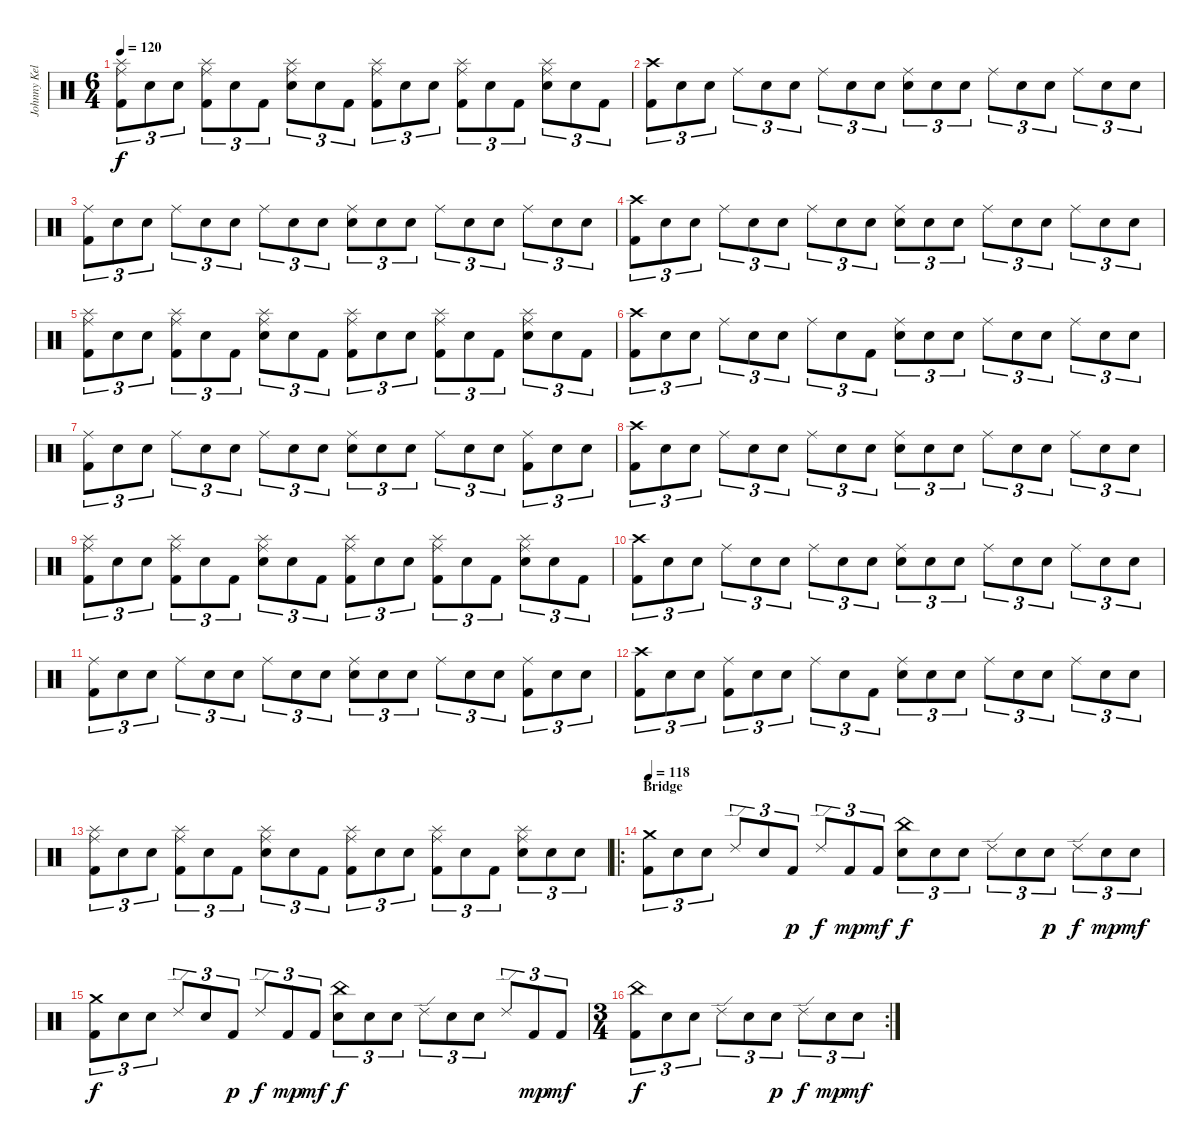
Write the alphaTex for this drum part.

\track ("Johnny Kelly - Drums" "Johnny Kel") {instrument percussion}
\staff {score}
\articulation defaults
\ts (6 4)
\tempo 120
\clef neutral
\ks c
("Ride (middle)" "Splash (hit)" "Kick (hit) 2").8{tu (3 2) dy f} "Snare (hit)".8{tu (3 2)} "Electric Snare (hit)".8{tu (3 2)} ("Ride (middle)" "Splash (hit)" "Kick (hit) 2").8{tu (3 2)} "Snare (hit)".8{tu (3 2)} "Kick (hit) 2".8{tu (3 2)} ("Ride (middle)" "Splash (hit)" "Electric Snare (hit)").8{tu (3 2)} "Snare (hit)".8{tu (3 2)} "Kick (hit) 2".8{tu (3 2)} ("Ride (middle)" "Splash (hit)" "Kick (hit) 2").8{tu (3 2)} "Snare (hit)".8{tu (3 2)} "Electric Snare (hit)".8{tu (3 2)} ("Ride (middle)" "Splash (hit)" "Kick (hit) 2").8{tu (3 2)} "Snare (hit)".8{tu (3 2)} "Kick (hit) 2".8{tu (3 2)} ("Ride (middle)" "Splash (hit)" "Electric Snare (hit)").8{tu (3 2)} "Snare (hit)".8{tu (3 2)} "Kick (hit) 2".8{tu (3 2)} |
("Crash high (hit)" "Kick (hit) 2").8{tu (3 2)} "Snare (hit)".8{tu (3 2)} "Snare (hit)".8{tu (3 2)} "Ride (middle)".8{tu (3 2)} "Snare (hit)".8{tu (3 2)} "Snare (hit)".8{tu (3 2)} "Ride (middle)".8{tu (3 2)} "Snare (hit)".8{tu (3 2)} "Snare (hit)".8{tu (3 2)} ("Ride (middle)" "Electric Snare (hit)").8{tu (3 2)} "Snare (hit)".8{tu (3 2)} "Snare (hit)".8{tu (3 2)} "Ride (middle)".8{tu (3 2)} "Snare (hit)".8{tu (3 2)} "Snare (hit)".8{tu (3 2)} "Ride (middle)".8{tu (3 2)} "Snare (hit)".8{tu (3 2)} "Snare (hit)".8{tu (3 2)} |
("Ride (middle)" "Kick (hit) 2").8{tu (3 2)} "Snare (hit)".8{tu (3 2)} "Snare (hit)".8{tu (3 2)} "Ride (middle)".8{tu (3 2)} "Snare (hit)".8{tu (3 2)} "Snare (hit)".8{tu (3 2)} "Ride (middle)".8{tu (3 2)} "Snare (hit)".8{tu (3 2)} "Snare (hit)".8{tu (3 2)} ("Ride (middle)" "Electric Snare (hit)").8{tu (3 2)} "Snare (hit)".8{tu (3 2)} "Snare (hit)".8{tu (3 2)} "Ride (middle)".8{tu (3 2)} "Snare (hit)".8{tu (3 2)} "Snare (hit)".8{tu (3 2)} "Ride (middle)".8{tu (3 2)} "Snare (hit)".8{tu (3 2)} "Snare (hit)".8{tu (3 2)} |
("Crash high (hit)" "Kick (hit) 2").8{tu (3 2)} "Snare (hit)".8{tu (3 2)} "Snare (hit)".8{tu (3 2)} "Ride (middle)".8{tu (3 2)} "Snare (hit)".8{tu (3 2)} "Snare (hit)".8{tu (3 2)} "Ride (middle)".8{tu (3 2)} "Snare (hit)".8{tu (3 2)} "Snare (hit)".8{tu (3 2)} ("Ride (middle)" "Electric Snare (hit)").8{tu (3 2)} "Snare (hit)".8{tu (3 2)} "Snare (hit)".8{tu (3 2)} "Ride (middle)".8{tu (3 2)} "Snare (hit)".8{tu (3 2)} "Snare (hit)".8{tu (3 2)} "Ride (middle)".8{tu (3 2)} "Snare (hit)".8{tu (3 2)} "Snare (hit)".8{tu (3 2)} |
("Ride (middle)" "Splash (hit)" "Kick (hit) 2").8{tu (3 2)} "Snare (hit)".8{tu (3 2)} "Electric Snare (hit)".8{tu (3 2)} ("Ride (middle)" "Splash (hit)" "Kick (hit) 2").8{tu (3 2)} "Snare (hit)".8{tu (3 2)} "Kick (hit) 2".8{tu (3 2)} ("Ride (middle)" "Splash (hit)" "Electric Snare (hit)").8{tu (3 2)} "Snare (hit)".8{tu (3 2)} "Kick (hit) 2".8{tu (3 2)} ("Ride (middle)" "Splash (hit)" "Kick (hit) 2").8{tu (3 2)} "Snare (hit)".8{tu (3 2)} "Electric Snare (hit)".8{tu (3 2)} ("Ride (middle)" "Splash (hit)" "Kick (hit) 2").8{tu (3 2)} "Snare (hit)".8{tu (3 2)} "Kick (hit) 2".8{tu (3 2)} ("Ride (middle)" "Splash (hit)" "Electric Snare (hit)").8{tu (3 2)} "Snare (hit)".8{tu (3 2)} "Kick (hit) 2".8{tu (3 2)} |
("Crash high (hit)" "Kick (hit) 2").8{tu (3 2)} "Snare (hit)".8{tu (3 2)} "Snare (hit)".8{tu (3 2)} "Ride (middle)".8{tu (3 2)} "Snare (hit)".8{tu (3 2)} "Snare (hit)".8{tu (3 2)} "Ride (middle)".8{tu (3 2)} "Snare (hit)".8{tu (3 2)} "Kick (hit) 2".8{tu (3 2)} ("Ride (middle)" "Electric Snare (hit)").8{tu (3 2)} "Snare (hit)".8{tu (3 2)} "Snare (hit)".8{tu (3 2)} "Ride (middle)".8{tu (3 2)} "Snare (hit)".8{tu (3 2)} "Snare (hit)".8{tu (3 2)} "Ride (middle)".8{tu (3 2)} "Snare (hit)".8{tu (3 2)} "Snare (hit)".8{tu (3 2)} |
("Ride (middle)" "Kick (hit) 2").8{tu (3 2)} "Snare (hit)".8{tu (3 2)} "Snare (hit)".8{tu (3 2)} "Ride (middle)".8{tu (3 2)} "Snare (hit)".8{tu (3 2)} "Snare (hit)".8{tu (3 2)} "Ride (middle)".8{tu (3 2)} "Snare (hit)".8{tu (3 2)} "Snare (hit)".8{tu (3 2)} ("Ride (middle)" "Electric Snare (hit)").8{tu (3 2)} "Snare (hit)".8{tu (3 2)} "Snare (hit)".8{tu (3 2)} "Ride (middle)".8{tu (3 2)} "Snare (hit)".8{tu (3 2)} "Electric Snare (hit)".8{tu (3 2)} ("Ride (middle)" "Kick (hit) 2").8{tu (3 2)} "Snare (hit)".8{tu (3 2)} "Electric Snare (hit)".8{tu (3 2)} |
("Crash high (hit)" "Kick (hit) 2").8{tu (3 2)} "Snare (hit)".8{tu (3 2)} "Snare (hit)".8{tu (3 2)} "Ride (middle)".8{tu (3 2)} "Snare (hit)".8{tu (3 2)} "Snare (hit)".8{tu (3 2)} "Ride (middle)".8{tu (3 2)} "Snare (hit)".8{tu (3 2)} "Snare (hit)".8{tu (3 2)} ("Ride (middle)" "Electric Snare (hit)").8{tu (3 2)} "Snare (hit)".8{tu (3 2)} "Snare (hit)".8{tu (3 2)} "Ride (middle)".8{tu (3 2)} "Snare (hit)".8{tu (3 2)} "Snare (hit)".8{tu (3 2)} "Ride (middle)".8{tu (3 2)} "Snare (hit)".8{tu (3 2)} "Snare (hit)".8{tu (3 2)} |
("Ride (middle)" "Splash (hit)" "Kick (hit) 2").8{tu (3 2)} "Snare (hit)".8{tu (3 2)} "Electric Snare (hit)".8{tu (3 2)} ("Ride (middle)" "Splash (hit)" "Kick (hit) 2").8{tu (3 2)} "Snare (hit)".8{tu (3 2)} "Kick (hit) 2".8{tu (3 2)} ("Ride (middle)" "Splash (hit)" "Electric Snare (hit)").8{tu (3 2)} "Snare (hit)".8{tu (3 2)} "Kick (hit) 2".8{tu (3 2)} ("Ride (middle)" "Splash (hit)" "Kick (hit) 2").8{tu (3 2)} "Snare (hit)".8{tu (3 2)} "Electric Snare (hit)".8{tu (3 2)} ("Ride (middle)" "Splash (hit)" "Kick (hit) 2").8{tu (3 2)} "Snare (hit)".8{tu (3 2)} "Kick (hit) 2".8{tu (3 2)} ("Ride (middle)" "Splash (hit)" "Electric Snare (hit)").8{tu (3 2)} "Snare (hit)".8{tu (3 2)} "Kick (hit) 2".8{tu (3 2)} |
("Crash high (hit)" "Kick (hit) 2").8{tu (3 2)} "Snare (hit)".8{tu (3 2)} "Snare (hit)".8{tu (3 2)} "Ride (middle)".8{tu (3 2)} "Snare (hit)".8{tu (3 2)} "Snare (hit)".8{tu (3 2)} "Ride (middle)".8{tu (3 2)} "Snare (hit)".8{tu (3 2)} "Snare (hit)".8{tu (3 2)} ("Ride (middle)" "Electric Snare (hit)").8{tu (3 2)} "Snare (hit)".8{tu (3 2)} "Snare (hit)".8{tu (3 2)} "Ride (middle)".8{tu (3 2)} "Snare (hit)".8{tu (3 2)} "Snare (hit)".8{tu (3 2)} "Ride (middle)".8{tu (3 2)} "Snare (hit)".8{tu (3 2)} "Snare (hit)".8{tu (3 2)} |
("Ride (middle)" "Kick (hit) 2").8{tu (3 2)} "Snare (hit)".8{tu (3 2)} "Snare (hit)".8{tu (3 2)} "Ride (middle)".8{tu (3 2)} "Snare (hit)".8{tu (3 2)} "Snare (hit)".8{tu (3 2)} "Ride (middle)".8{tu (3 2)} "Snare (hit)".8{tu (3 2)} "Snare (hit)".8{tu (3 2)} ("Ride (middle)" "Electric Snare (hit)").8{tu (3 2)} "Snare (hit)".8{tu (3 2)} "Snare (hit)".8{tu (3 2)} "Ride (middle)".8{tu (3 2)} "Snare (hit)".8{tu (3 2)} "Electric Snare (hit)".8{tu (3 2)} ("Ride (middle)" "Kick (hit) 2").8{tu (3 2)} "Snare (hit)".8{tu (3 2)} "Electric Snare (hit)".8{tu (3 2)} |
("Crash high (hit)" "Kick (hit) 2").8{tu (3 2)} "Snare (hit)".8{tu (3 2)} "Snare (hit)".8{tu (3 2)} ("Ride (middle)" "Kick (hit) 2").8{tu (3 2)} "Snare (hit)".8{tu (3 2)} "Snare (hit)".8{tu (3 2)} "Ride (middle)".8{tu (3 2)} "Snare (hit)".8{tu (3 2)} "Kick (hit) 2".8{tu (3 2)} ("Ride (middle)" "Electric Snare (hit)").8{tu (3 2)} "Snare (hit)".8{tu (3 2)} "Snare (hit)".8{tu (3 2)} "Ride (middle)".8{tu (3 2)} "Snare (hit)".8{tu (3 2)} "Snare (hit)".8{tu (3 2)} "Ride (middle)".8{tu (3 2)} "Snare (hit)".8{tu (3 2)} "Snare (hit)".8{tu (3 2)} |
("Ride (middle)" "Splash (hit)" "Kick (hit) 2").8{tu (3 2)} "Snare (hit)".8{tu (3 2)} "Electric Snare (hit)".8{tu (3 2)} ("Ride (middle)" "Splash (hit)" "Kick (hit) 2").8{tu (3 2)} "Snare (hit)".8{tu (3 2)} "Kick (hit) 2".8{tu (3 2)} ("Ride (middle)" "Splash (hit)" "Electric Snare (hit)").8{tu (3 2)} "Snare (hit)".8{tu (3 2)} "Kick (hit) 2".8{tu (3 2)} ("Ride (middle)" "Splash (hit)" "Kick (hit) 2").8{tu (3 2)} "Snare (hit)".8{tu (3 2)} "Electric Snare (hit)".8{tu (3 2)} ("Ride (middle)" "Splash (hit)" "Kick (hit) 2").8{tu (3 2)} "Snare (hit)".8{tu (3 2)} "Kick (hit) 2".8{tu (3 2)} ("Ride (middle)" "Splash (hit)" "Electric Snare (hit)").8{tu (3 2)} "Snare (hit)".8{tu (3 2)} "Electric Snare (hit)".8{tu (3 2)} |
\ro
\section ("" "Bridge")
\tempo 118
("Crash medium (hit)" "Kick (hit) 2").8{tu (3 2) volume 16 balance 8} "Snare (hit)".8{tu (3 2)} "Snare (hit)".8{tu (3 2)} "Ride (edge) 2".8{tu (3 2)} "Snare (hit)".8{tu (3 2)} "Kick (hit) 2".8{tu (3 2) dy p} "Ride (edge) 2".8{tu (3 2) dy f} "Kick (hit) 2".8{tu (3 2) dy mp} "Kick (hit) 2".8{tu (3 2) dy mf} ("China (hit)" "Electric Snare (hit)").8{tu (3 2) dy f} "Snare (hit)".8{tu (3 2)} "Snare (hit)".8{tu (3 2)} "Ride (edge) 2".8{tu (3 2)} "Snare (hit)".8{tu (3 2)} "Electric Snare (hit)".8{tu (3 2) dy p} "Ride (edge) 2".8{tu (3 2) dy f} "Electric Snare (hit)".8{tu (3 2) dy mp} "Electric Snare (hit)".8{tu (3 2) dy mf} |
("Crash medium (hit)" "Kick (hit) 2").8{tu (3 2) dy f} "Snare (hit)".8{tu (3 2)} "Snare (hit)".8{tu (3 2)} "Ride (edge) 2".8{tu (3 2)} "Snare (hit)".8{tu (3 2)} "Kick (hit) 2".8{tu (3 2) dy p} "Ride (edge) 2".8{tu (3 2) dy f} "Kick (hit) 2".8{tu (3 2) dy mp} "Kick (hit) 2".8{tu (3 2) dy mf} ("China (hit)" "Electric Snare (hit)").8{tu (3 2) dy f} "Snare (hit)".8{tu (3 2)} "Snare (hit)".8{tu (3 2)} "Ride (edge) 2".8{tu (3 2)} "Snare (hit)".8{tu (3 2)} "Snare (hit)".8{tu (3 2)} "Ride (edge) 2".8{tu (3 2)} "Kick (hit) 2".8{tu (3 2) dy mp} "Kick (hit) 2".8{tu (3 2) dy mf} |
\rc 2
\ts (3 4)
("China (hit)" "Kick (hit) 2").8{tu (3 2) dy f} "Snare (hit)".8{tu (3 2)} "Snare (hit)".8{tu (3 2)} "Ride (edge) 2".8{tu (3 2)} "Snare (hit)".8{tu (3 2)} "Electric Snare (hit)".8{tu (3 2) dy p} "Ride (edge) 2".8{tu (3 2) dy f} "Electric Snare (hit)".8{tu (3 2) dy mp} "Electric Snare (hit)".8{tu (3 2) dy mf}
